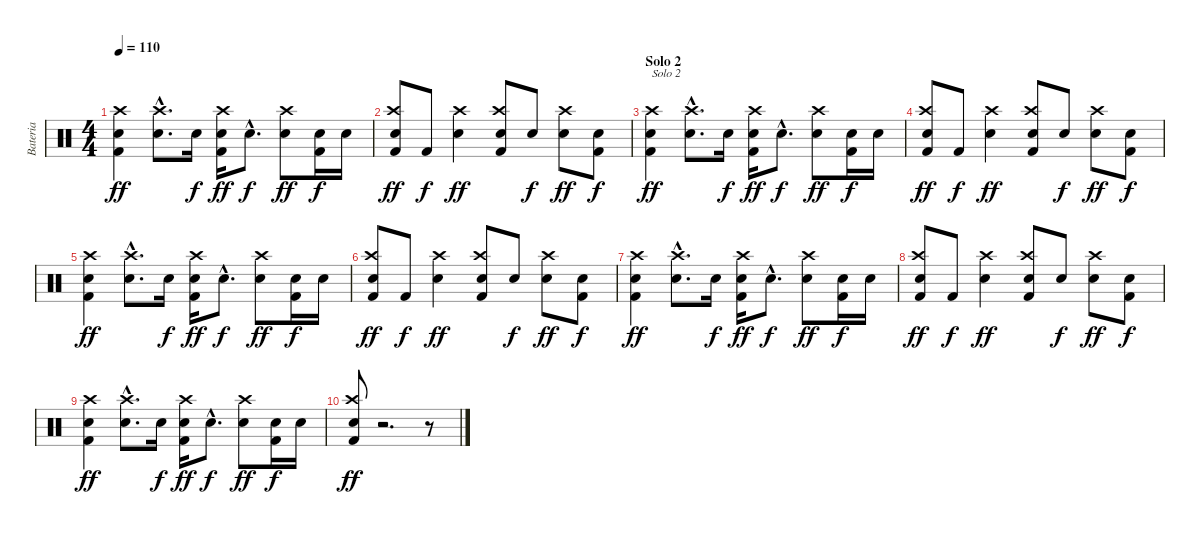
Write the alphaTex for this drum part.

\track ("Bateria" "Bateria") {instrument percussion}
\staff {score}
\articulation defaults
\ts (4 4)
\tempo 110
\clef neutral
\ks c
("Kick (hit) 2" "Electric Snare (hit)" "Crash high (hit)").4{dy ff} ("Electric Snare (hit)"{hac} "Crash high (hit)"{hac}).8{d} "Metronome (bell)".16{dy f} ("Kick (hit) 2" "Electric Snare (hit)" "Crash high (hit)").16{dy ff} "Metronome (bell)"{hac}.8{d dy f} ("Metronome (bell)" "Crash high (hit)").8{dy ff} ("Kick (hit) 2" "Metronome (bell)").16{dy f} "Electric Snare (hit)".16 |
("Kick (hit) 2" "Metronome (bell)" "Crash high (hit)").8{dy ff} "Kick (hit) 2".8{dy f} ("Electric Snare (hit)" "Crash high (hit)").4{dy ff} ("Kick (hit) 2" "Metronome (bell)" "Crash high (hit)").8 "Metronome (bell)".8{dy f} ("Metronome (bell)" "Crash high (hit)").8{dy ff} ("Kick (hit) 2" "Metronome (bell)").8{dy f} |
\section ("" "Solo 2")
("Kick (hit) 2" "Electric Snare (hit)" "Crash high (hit)").4{txt "Solo 2" dy ff} ("Electric Snare (hit)"{hac} "Crash high (hit)"{hac}).8{d} "Metronome (bell)".16{dy f} ("Kick (hit) 2" "Electric Snare (hit)" "Crash high (hit)").16{dy ff} "Metronome (bell)"{hac}.8{d dy f} ("Metronome (bell)" "Crash high (hit)").8{dy ff} ("Kick (hit) 2" "Metronome (bell)").16{dy f} "Electric Snare (hit)".16 |
("Kick (hit) 2" "Metronome (bell)" "Crash high (hit)").8{dy ff} "Kick (hit) 2".8{dy f} ("Electric Snare (hit)" "Crash high (hit)").4{dy ff} ("Kick (hit) 2" "Metronome (bell)" "Crash high (hit)").8 "Metronome (bell)".8{dy f} ("Metronome (bell)" "Crash high (hit)").8{dy ff} ("Kick (hit) 2" "Metronome (bell)").8{dy f} |
("Kick (hit) 2" "Electric Snare (hit)" "Crash high (hit)").4{dy ff} ("Electric Snare (hit)"{hac} "Crash high (hit)"{hac}).8{d} "Metronome (bell)".16{dy f} ("Kick (hit) 2" "Electric Snare (hit)" "Crash high (hit)").16{dy ff} "Metronome (bell)"{hac}.8{d dy f} ("Metronome (bell)" "Crash high (hit)").8{dy ff} ("Kick (hit) 2" "Metronome (bell)").16{dy f} "Electric Snare (hit)".16 |
("Kick (hit) 2" "Metronome (bell)" "Crash high (hit)").8{dy ff} "Kick (hit) 2".8{dy f} ("Electric Snare (hit)" "Crash high (hit)").4{dy ff} ("Kick (hit) 2" "Metronome (bell)" "Crash high (hit)").8 "Metronome (bell)".8{dy f} ("Metronome (bell)" "Crash high (hit)").8{dy ff} ("Kick (hit) 2" "Metronome (bell)").8{dy f} |
("Kick (hit) 2" "Electric Snare (hit)" "Crash high (hit)").4{dy ff} ("Electric Snare (hit)"{hac} "Crash high (hit)"{hac}).8{d} "Metronome (bell)".16{dy f} ("Kick (hit) 2" "Electric Snare (hit)" "Crash high (hit)").16{dy ff} "Metronome (bell)"{hac}.8{d dy f} ("Metronome (bell)" "Crash high (hit)").8{dy ff} ("Kick (hit) 2" "Metronome (bell)").16{dy f} "Electric Snare (hit)".16 |
("Kick (hit) 2" "Metronome (bell)" "Crash high (hit)").8{dy ff} "Kick (hit) 2".8{dy f} ("Electric Snare (hit)" "Crash high (hit)").4{dy ff} ("Kick (hit) 2" "Metronome (bell)" "Crash high (hit)").8 "Metronome (bell)".8{dy f} ("Metronome (bell)" "Crash high (hit)").8{dy ff} ("Kick (hit) 2" "Metronome (bell)").8{dy f} |
("Kick (hit) 2" "Electric Snare (hit)" "Crash high (hit)").4{dy ff} ("Electric Snare (hit)"{hac} "Crash high (hit)"{hac}).8{d} "Metronome (bell)".16{dy f} ("Kick (hit) 2" "Electric Snare (hit)" "Crash high (hit)").16{dy ff} "Metronome (bell)"{hac}.8{d dy f} ("Metronome (bell)" "Crash high (hit)").8{dy ff} ("Kick (hit) 2" "Metronome (bell)").16{dy f} "Electric Snare (hit)".16 |
("Kick (hit) 2" "Metronome (bell)" "Crash high (hit)").8{dy ff} r.2{d} r.8
